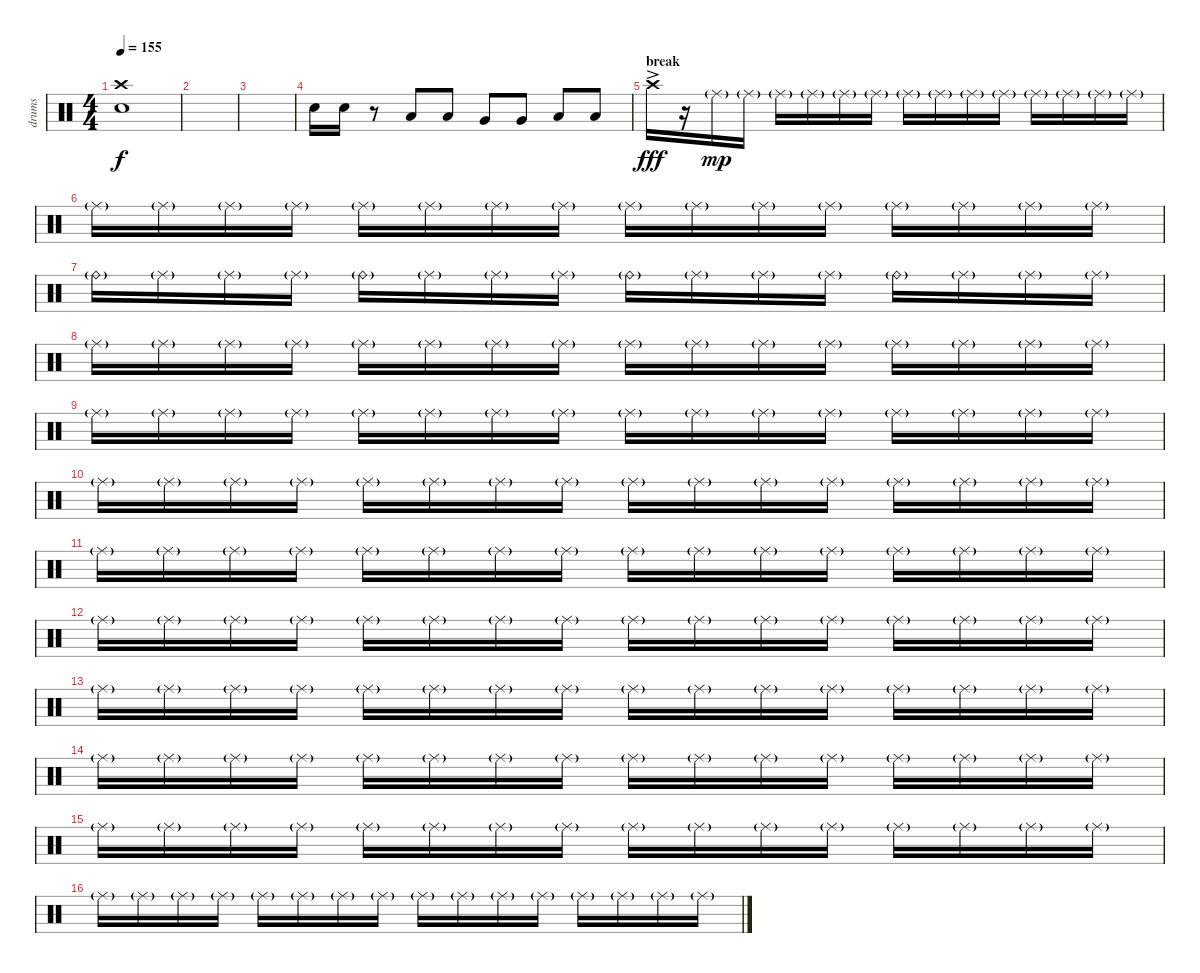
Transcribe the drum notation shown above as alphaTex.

\track ("drums" "drums") {instrument percussion}
\staff {score}
\articulation defaults
\ts (4 4)
\tempo 155
\clef neutral
\ks c
("Electric Snare (hit)" "Crash high (hit)").1{dy f} |
|
|
"Electric Snare (hit)".16 "Electric Snare (hit)".16 r.8 "Low Tom (hit)".8 "Low Tom (hit)".8 "Very Low Tom (hit)".8 "Very Low Tom (hit)".8 "Low Floor Tom (hit)".8 "Low Floor Tom (hit)".8 |
\section ("" "break")
"Crash high (hit)"{ac}.16{dy fff} r.16 "Ride (middle)"{g}.16{dy mp} "Ride (middle)"{g}.16 "Ride (middle)"{g}.16 "Ride (middle)"{g}.16 "Ride (middle)"{g}.16 "Ride (middle)"{g}.16 "Ride (middle)"{g}.16 "Ride (middle)"{g}.16 "Ride (middle)"{g}.16 "Ride (middle)"{g}.16 "Ride (middle)"{g}.16 "Ride (middle)"{g}.16 "Ride (middle)"{g}.16 "Ride (middle)"{g}.16 |
"Ride (middle)"{g}.16 "Ride (middle)"{g}.16 "Ride (middle)"{g}.16 "Ride (middle)"{g}.16 "Ride (middle)"{g}.16 "Ride (middle)"{g}.16 "Ride (middle)"{g}.16 "Ride (middle)"{g}.16 "Ride (middle)"{g}.16 "Ride (middle)"{g}.16 "Ride (middle)"{g}.16 "Ride (middle)"{g}.16 "Ride (middle)"{g}.16 "Ride (middle)"{g}.16 "Ride (middle)"{g}.16 "Ride (middle)"{g}.16 |
"Ride (bell)"{g}.16 "Ride (middle)"{g}.16 "Ride (middle)"{g}.16 "Ride (middle)"{g}.16 "Ride (bell)"{g}.16 "Ride (middle)"{g}.16 "Ride (middle)"{g}.16 "Ride (middle)"{g}.16 "Ride (bell)"{g}.16 "Ride (middle)"{g}.16 "Ride (middle)"{g}.16 "Ride (middle)"{g}.16 "Ride (bell)"{g}.16 "Ride (middle)"{g}.16 "Ride (middle)"{g}.16 "Ride (middle)"{g}.16 |
"Ride (middle)"{g}.16 "Ride (middle)"{g}.16 "Ride (middle)"{g}.16 "Ride (middle)"{g}.16 "Ride (middle)"{g}.16 "Ride (middle)"{g}.16 "Ride (middle)"{g}.16 "Ride (middle)"{g}.16 "Ride (middle)"{g}.16 "Ride (middle)"{g}.16 "Ride (middle)"{g}.16 "Ride (middle)"{g}.16 "Ride (middle)"{g}.16 "Ride (middle)"{g}.16 "Ride (middle)"{g}.16 "Ride (middle)"{g}.16 |
"Ride (middle)"{g}.16 "Ride (middle)"{g}.16 "Ride (middle)"{g}.16 "Ride (middle)"{g}.16 "Ride (middle)"{g}.16 "Ride (middle)"{g}.16 "Ride (middle)"{g}.16 "Ride (middle)"{g}.16 "Ride (middle)"{g}.16 "Ride (middle)"{g}.16 "Ride (middle)"{g}.16 "Ride (middle)"{g}.16 "Ride (middle)"{g}.16 "Ride (middle)"{g}.16 "Ride (middle)"{g}.16 "Ride (middle)"{g}.16 |
"Ride (middle)"{g}.16 "Ride (middle)"{g}.16 "Ride (middle)"{g}.16 "Ride (middle)"{g}.16 "Ride (middle)"{g}.16 "Ride (middle)"{g}.16 "Ride (middle)"{g}.16 "Ride (middle)"{g}.16 "Ride (middle)"{g}.16 "Ride (middle)"{g}.16 "Ride (middle)"{g}.16 "Ride (middle)"{g}.16 "Ride (middle)"{g}.16 "Ride (middle)"{g}.16 "Ride (middle)"{g}.16 "Ride (middle)"{g}.16 |
"Ride (middle)"{g}.16 "Ride (middle)"{g}.16 "Ride (middle)"{g}.16 "Ride (middle)"{g}.16 "Ride (middle)"{g}.16 "Ride (middle)"{g}.16 "Ride (middle)"{g}.16 "Ride (middle)"{g}.16 "Ride (middle)"{g}.16 "Ride (middle)"{g}.16 "Ride (middle)"{g}.16 "Ride (middle)"{g}.16 "Ride (middle)"{g}.16 "Ride (middle)"{g}.16 "Ride (middle)"{g}.16 "Ride (middle)"{g}.16 |
"Ride (middle)"{g}.16 "Ride (middle)"{g}.16 "Ride (middle)"{g}.16 "Ride (middle)"{g}.16 "Ride (middle)"{g}.16 "Ride (middle)"{g}.16 "Ride (middle)"{g}.16 "Ride (middle)"{g}.16 "Ride (middle)"{g}.16 "Ride (middle)"{g}.16 "Ride (middle)"{g}.16 "Ride (middle)"{g}.16 "Ride (middle)"{g}.16 "Ride (middle)"{g}.16 "Ride (middle)"{g}.16 "Ride (middle)"{g}.16 |
"Ride (middle)"{g}.16 "Ride (middle)"{g}.16 "Ride (middle)"{g}.16 "Ride (middle)"{g}.16 "Ride (middle)"{g}.16 "Ride (middle)"{g}.16 "Ride (middle)"{g}.16 "Ride (middle)"{g}.16 "Ride (middle)"{g}.16 "Ride (middle)"{g}.16 "Ride (middle)"{g}.16 "Ride (middle)"{g}.16 "Ride (middle)"{g}.16 "Ride (middle)"{g}.16 "Ride (middle)"{g}.16 "Ride (middle)"{g}.16 |
"Ride (middle)"{g}.16 "Ride (middle)"{g}.16 "Ride (middle)"{g}.16 "Ride (middle)"{g}.16 "Ride (middle)"{g}.16 "Ride (middle)"{g}.16 "Ride (middle)"{g}.16 "Ride (middle)"{g}.16 "Ride (middle)"{g}.16 "Ride (middle)"{g}.16 "Ride (middle)"{g}.16 "Ride (middle)"{g}.16 "Ride (middle)"{g}.16 "Ride (middle)"{g}.16 "Ride (middle)"{g}.16 "Ride (middle)"{g}.16 |
"Ride (middle)"{g}.16 "Ride (middle)"{g}.16 "Ride (middle)"{g}.16 "Ride (middle)"{g}.16 "Ride (middle)"{g}.16 "Ride (middle)"{g}.16 "Ride (middle)"{g}.16 "Ride (middle)"{g}.16 "Ride (middle)"{g}.16 "Ride (middle)"{g}.16 "Ride (middle)"{g}.16 "Ride (middle)"{g}.16 "Ride (middle)"{g}.16 "Ride (middle)"{g}.16 "Ride (middle)"{g}.16 "Ride (middle)"{g}.16 |
"Ride (middle)"{g}.16 "Ride (middle)"{g}.16 "Ride (middle)"{g}.16 "Ride (middle)"{g}.16 "Ride (middle)"{g}.16 "Ride (middle)"{g}.16 "Ride (middle)"{g}.16 "Ride (middle)"{g}.16 "Ride (middle)"{g}.16 "Ride (middle)"{g}.16 "Ride (middle)"{g}.16 "Ride (middle)"{g}.16 "Ride (middle)"{g}.16 "Ride (middle)"{g}.16 "Ride (middle)"{g}.16 "Ride (middle)"{g}.16
